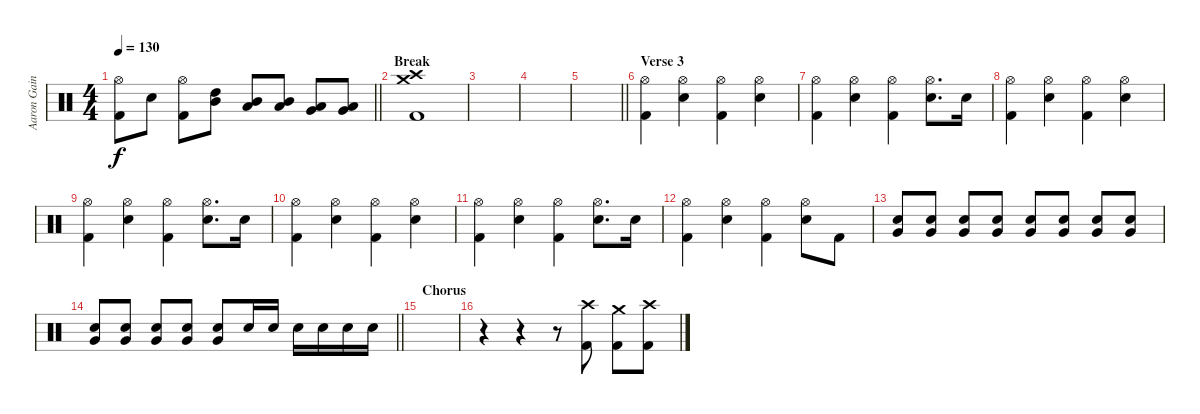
\track ("Aaron Gainer - Drums" "Aaron Gain") {instrument percussion}
\staff {score}
\articulation defaults
\ts (4 4)
\tempo 130
\clef neutral
\barLineRight lightlight
\ks c
("Hi-Hat (open)" "Kick (hit) 2").8{dy f} "Snare (hit) 2".8 ("Hi-Hat (open)" "Kick (hit) 2").8 ("High Tom (hit)" "Mid Tom (hit)").8 ("Mid Tom (hit)" "Low Tom (hit)").8 ("Mid Tom (hit)" "Low Tom (hit)").8 ("Low Tom (hit)" "Very Low Tom (hit)").8 ("Very Low Tom (hit)" "Low Floor Tom (hit)").8 |
\section ("" "Break")
("Crash medium (hit)" "Crash high (hit)" "Kick (hit) 2").1 |
|
|
\barLineRight lightlight
|
\section ("" "Verse 3")
("Hi-Hat (open)" "Kick (hit) 2").4 ("Hi-Hat (open)" "Snare (hit) 2").4 ("Hi-Hat (open)" "Kick (hit) 2").4 ("Hi-Hat (open)" "Snare (hit) 2").4 |
("Hi-Hat (open)" "Kick (hit) 2").4 ("Hi-Hat (open)" "Snare (hit) 2").4 ("Hi-Hat (open)" "Kick (hit) 2").4 ("Hi-Hat (open)" "Snare (hit) 2").8{d} "Snare (hit) 2".16 |
("Hi-Hat (open)" "Kick (hit) 2").4 ("Hi-Hat (open)" "Snare (hit) 2").4 ("Hi-Hat (open)" "Kick (hit) 2").4 ("Hi-Hat (open)" "Snare (hit) 2").4 |
("Hi-Hat (open)" "Kick (hit) 2").4 ("Hi-Hat (open)" "Snare (hit) 2").4 ("Hi-Hat (open)" "Kick (hit) 2").4 ("Hi-Hat (open)" "Snare (hit) 2").8{d} "Snare (hit) 2".16 |
("Hi-Hat (open)" "Kick (hit) 2").4 ("Hi-Hat (open)" "Snare (hit) 2").4 ("Hi-Hat (open)" "Kick (hit) 2").4 ("Hi-Hat (open)" "Snare (hit) 2").4 |
("Hi-Hat (open)" "Kick (hit) 2").4 ("Hi-Hat (open)" "Snare (hit) 2").4 ("Hi-Hat (open)" "Kick (hit) 2").4 ("Hi-Hat (open)" "Snare (hit) 2").8{d} "Snare (hit) 2".16 |
("Hi-Hat (open)" "Kick (hit) 2").4 ("Hi-Hat (open)" "Snare (hit) 2").4 ("Hi-Hat (open)" "Kick (hit) 2").4 ("Hi-Hat (open)" "Snare (hit) 2").8 "Kick (hit) 2".8 |
("Snare (hit) 2" "Very Low Tom (hit)").8 ("Snare (hit) 2" "Very Low Tom (hit)").8 ("Snare (hit) 2" "Very Low Tom (hit)").8 ("Snare (hit) 2" "Very Low Tom (hit)").8 ("Snare (hit) 2" "Very Low Tom (hit)").8 ("Snare (hit) 2" "Very Low Tom (hit)").8 ("Snare (hit) 2" "Very Low Tom (hit)").8 ("Snare (hit) 2" "Very Low Tom (hit)").8 |
\barLineRight lightlight
("Snare (hit) 2" "Very Low Tom (hit)").8 ("Snare (hit) 2" "Very Low Tom (hit)").8 ("Snare (hit) 2" "Very Low Tom (hit)").8 ("Snare (hit) 2" "Very Low Tom (hit)").8 ("Snare (hit) 2" "Very Low Tom (hit)").8 "Snare (hit) 2".16 "Snare (hit) 2".16 "Snare (hit) 2".16 "Snare (hit) 2".16 "Snare (hit) 2".16 "Snare (hit) 2".16 |
\section ("" "Chorus")
|
r.4 r.4 r.8 ("Crash high (hit)" "Kick (hit) 2").8 ("Crash medium (hit)" "Kick (hit) 2").8 ("Crash high (hit)" "Kick (hit) 2").8
